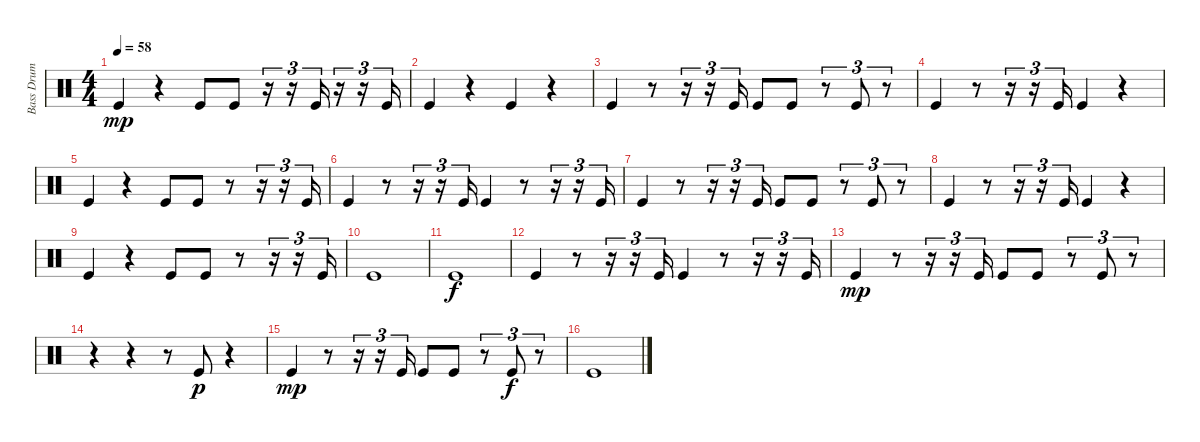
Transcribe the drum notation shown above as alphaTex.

\track ("Bass Drum" "Bass Drum") {instrument percussion}
\staff {score}
\articulation defaults
\ts (4 4)
\tempo 58
\clef neutral
\ks c "Kick (hit)".4{dy mp}
r.4 "Kick (hit)".8 "Kick (hit)".8 r.16{tu (3 2)} r.16{tu (3 2)} "Kick (hit)".16{tu (3 2)} r.16{tu (3 2)} r.16{tu (3 2)} "Kick (hit)".16{tu (3 2)} |
"Kick (hit)".4 r.4 "Kick (hit)".4 r.4 |
"Kick (hit)".4 r.8 r.16{tu (3 2)} r.16{tu (3 2)} "Kick (hit)".16{tu (3 2)} "Kick (hit)".8 "Kick (hit)".8 r.8{tu (3 2)} "Kick (hit)".8{tu (3 2)} r.8{tu (3 2)} |
"Kick (hit)".4 r.8 r.16{tu (3 2)} r.16{tu (3 2)} "Kick (hit)".16{tu (3 2)} "Kick (hit)".4 r.4 |
"Kick (hit)".4 r.4 "Kick (hit)".8 "Kick (hit)".8 r.8 r.16{tu (3 2)} r.16{tu (3 2)} "Kick (hit)".16{tu (3 2)} |
"Kick (hit)".4 r.8 r.16{tu (3 2)} r.16{tu (3 2)} "Kick (hit)".16{tu (3 2)} "Kick (hit)".4 r.8 r.16{tu (3 2)} r.16{tu (3 2)} "Kick (hit)".16{tu (3 2)} |
"Kick (hit)".4 r.8 r.16{tu (3 2)} r.16{tu (3 2)} "Kick (hit)".16{tu (3 2)} "Kick (hit)".8 "Kick (hit)".8 r.8{tu (3 2)} "Kick (hit)".8{tu (3 2)} r.8{tu (3 2)} |
"Kick (hit)".4 r.8 r.16{tu (3 2)} r.16{tu (3 2)} "Kick (hit)".16{tu (3 2)} "Kick (hit)".4 r.4 |
"Kick (hit)".4 r.4 "Kick (hit)".8 "Kick (hit)".8 r.8 r.16{tu (3 2)} r.16{tu (3 2)} "Kick (hit)".16{tu (3 2)} |
"Kick (hit)".1 |
"Kick (hit)".1{dy f} |
"Kick (hit)".4 r.8 r.16{tu (3 2)} r.16{tu (3 2)} "Kick (hit)".16{tu (3 2)} "Kick (hit)".4 r.8 r.16{tu (3 2)} r.16{tu (3 2)} "Kick (hit)".16{tu (3 2)} |
"Kick (hit)".4{dy mp} r.8 r.16{tu (3 2)} r.16{tu (3 2)} "Kick (hit)".16{tu (3 2)} "Kick (hit)".8 "Kick (hit)".8 r.8{tu (3 2)} "Kick (hit)".8{tu (3 2)} r.8{tu (3 2)} |
r.4 r.4 r.8 "Kick (hit)".8{dy p} r.4 |
"Kick (hit)".4{dy mp} r.8 r.16{tu (3 2)} r.16{tu (3 2)} "Kick (hit)".16{tu (3 2)} "Kick (hit)".8 "Kick (hit)".8 r.8{tu (3 2)} "Kick (hit)".8{tu (3 2) dy f} r.8{tu (3 2)} |
"Kick (hit)".1
